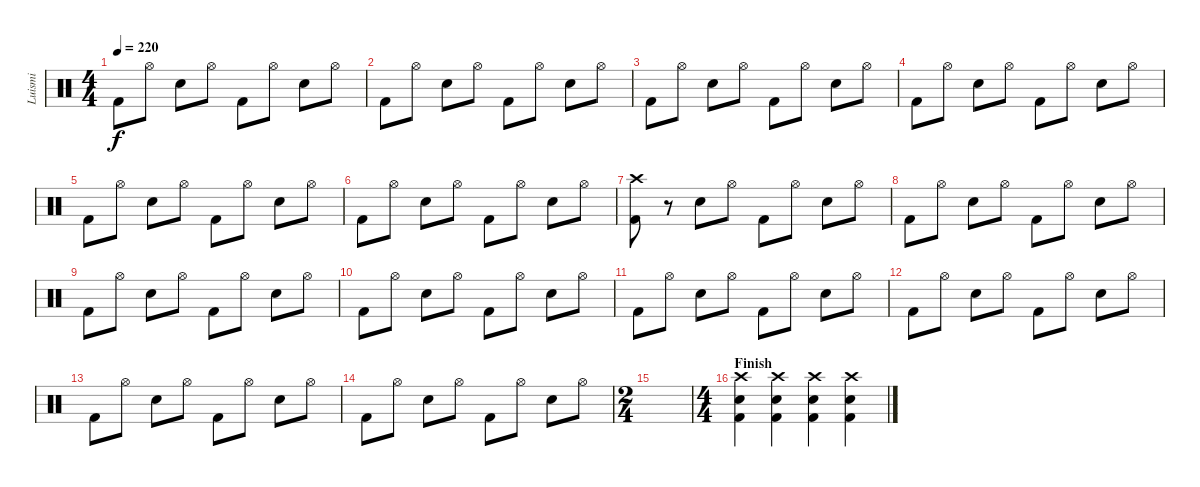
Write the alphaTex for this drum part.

\track ("Luismi" "Luismi") {instrument percussion}
\staff {score}
\articulation defaults
\ts (4 4)
\tempo 220
\clef neutral
\ks c "Kick (hit) 2".8{dy f} "Hi-Hat (open)".8 "Snare (hit) 2".8 "Hi-Hat (open)".8 "Kick (hit) 2".8 "Hi-Hat (open)".8 "Snare (hit) 2".8 "Hi-Hat (open)".8
|
"Kick (hit) 2".8 "Hi-Hat (open)".8 "Snare (hit) 2".8 "Hi-Hat (open)".8 "Kick (hit) 2".8 "Hi-Hat (open)".8 "Snare (hit) 2".8 "Hi-Hat (open)".8 |
"Kick (hit) 2".8 "Hi-Hat (open)".8 "Snare (hit) 2".8 "Hi-Hat (open)".8 "Kick (hit) 2".8 "Hi-Hat (open)".8 "Snare (hit) 2".8 "Hi-Hat (open)".8 |
"Kick (hit) 2".8 "Hi-Hat (open)".8 "Snare (hit) 2".8 "Hi-Hat (open)".8 "Kick (hit) 2".8 "Hi-Hat (open)".8 "Snare (hit) 2".8 "Hi-Hat (open)".8 |
"Kick (hit) 2".8 "Hi-Hat (open)".8 "Snare (hit) 2".8 "Hi-Hat (open)".8 "Kick (hit) 2".8 "Hi-Hat (open)".8 "Snare (hit) 2".8 "Hi-Hat (open)".8 |
"Kick (hit) 2".8 "Hi-Hat (open)".8 "Snare (hit) 2".8 "Hi-Hat (open)".8 "Kick (hit) 2".8 "Hi-Hat (open)".8 "Snare (hit) 2".8 "Hi-Hat (open)".8 |
("Crash high (hit)" "Kick (hit) 2").8 r.8 "Snare (hit) 2".8 "Hi-Hat (open)".8 "Kick (hit) 2".8 "Hi-Hat (open)".8 "Snare (hit) 2".8 "Hi-Hat (open)".8 |
"Kick (hit) 2".8 "Hi-Hat (open)".8 "Snare (hit) 2".8 "Hi-Hat (open)".8 "Kick (hit) 2".8 "Hi-Hat (open)".8 "Snare (hit) 2".8 "Hi-Hat (open)".8 |
"Kick (hit) 2".8 "Hi-Hat (open)".8 "Snare (hit) 2".8 "Hi-Hat (open)".8 "Kick (hit) 2".8 "Hi-Hat (open)".8 "Snare (hit) 2".8 "Hi-Hat (open)".8 |
"Kick (hit) 2".8 "Hi-Hat (open)".8 "Snare (hit) 2".8 "Hi-Hat (open)".8 "Kick (hit) 2".8 "Hi-Hat (open)".8 "Snare (hit) 2".8 "Hi-Hat (open)".8 |
"Kick (hit) 2".8 "Hi-Hat (open)".8 "Snare (hit) 2".8 "Hi-Hat (open)".8 "Kick (hit) 2".8 "Hi-Hat (open)".8 "Snare (hit) 2".8 "Hi-Hat (open)".8 |
"Kick (hit) 2".8 "Hi-Hat (open)".8 "Snare (hit) 2".8 "Hi-Hat (open)".8 "Kick (hit) 2".8 "Hi-Hat (open)".8 "Snare (hit) 2".8 "Hi-Hat (open)".8 |
"Kick (hit) 2".8 "Hi-Hat (open)".8 "Snare (hit) 2".8 "Hi-Hat (open)".8 "Kick (hit) 2".8 "Hi-Hat (open)".8 "Snare (hit) 2".8 "Hi-Hat (open)".8 |
"Kick (hit) 2".8 "Hi-Hat (open)".8 "Snare (hit) 2".8 "Hi-Hat (open)".8 "Kick (hit) 2".8 "Hi-Hat (open)".8 "Snare (hit) 2".8 "Hi-Hat (open)".8 |
\ts (2 4)
|
\ts (4 4)
\section ("" "Finish")
("Crash high (hit)" "Snare (hit) 2" "Kick (hit) 2").4 ("Crash high (hit)" "Snare (hit) 2" "Kick (hit) 2").4 ("Crash high (hit)" "Snare (hit) 2" "Kick (hit) 2").4 ("Crash high (hit)" "Snare (hit) 2" "Kick (hit) 2").4
